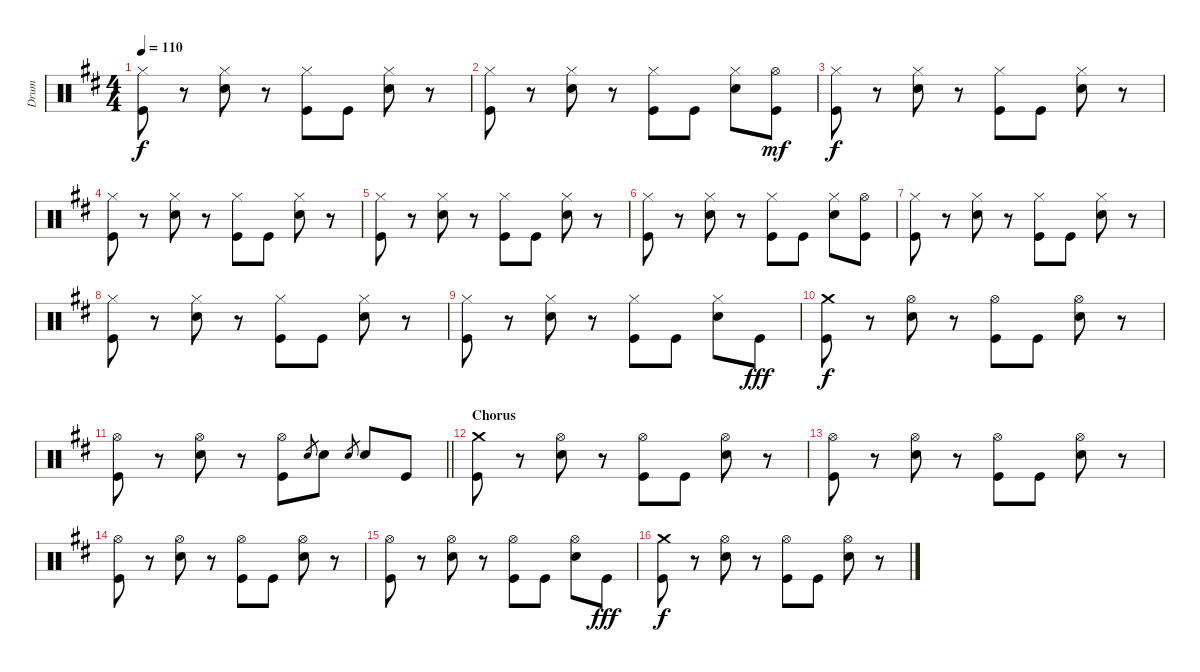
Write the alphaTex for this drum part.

\track ("Drum" "Drum") {instrument percussion}
\staff {score}
\articulation defaults
\ts (4 4)
\tempo 110
\clef neutral
\ks d
("Hi-Hat (closed)" "Kick (hit)").8{dy f} r.8 ("Hi-Hat (closed)" "Electric Snare (hit)").8 r.8 ("Hi-Hat (closed)" "Kick (hit)").8 "Kick (hit)".8 ("Hi-Hat (closed)" "Electric Snare (hit)").8 r.8 |
("Hi-Hat (closed)" "Kick (hit)").8 r.8 ("Hi-Hat (closed)" "Electric Snare (hit)").8 r.8 ("Hi-Hat (closed)" "Kick (hit)").8 "Kick (hit)".8 ("Hi-Hat (closed)" "Electric Snare (hit)").8 ("Hi-Hat (open)" "Kick (hit)").8{dy mf} |
("Hi-Hat (closed)" "Kick (hit)").8{dy f} r.8 ("Hi-Hat (closed)" "Electric Snare (hit)").8 r.8 ("Hi-Hat (closed)" "Kick (hit)").8 "Kick (hit)".8 ("Hi-Hat (closed)" "Electric Snare (hit)").8 r.8 |
("Hi-Hat (closed)" "Kick (hit)").8 r.8 ("Hi-Hat (closed)" "Electric Snare (hit)").8 r.8 ("Hi-Hat (closed)" "Kick (hit)").8 "Kick (hit)".8 ("Hi-Hat (closed)" "Electric Snare (hit)").8 r.8 |
("Hi-Hat (closed)" "Kick (hit)").8 r.8 ("Hi-Hat (closed)" "Electric Snare (hit)").8 r.8 ("Hi-Hat (closed)" "Kick (hit)").8 "Kick (hit)".8 ("Hi-Hat (closed)" "Electric Snare (hit)").8 r.8 |
("Hi-Hat (closed)" "Kick (hit)").8 r.8 ("Hi-Hat (closed)" "Electric Snare (hit)").8 r.8 ("Hi-Hat (closed)" "Kick (hit)").8 "Kick (hit)".8 ("Hi-Hat (closed)" "Electric Snare (hit)").8 ("Hi-Hat (open)" "Kick (hit)").8 |
("Hi-Hat (closed)" "Kick (hit)").8 r.8 ("Hi-Hat (closed)" "Electric Snare (hit)").8 r.8 ("Hi-Hat (closed)" "Kick (hit)").8 "Kick (hit)".8 ("Hi-Hat (closed)" "Electric Snare (hit)").8 r.8 |
("Hi-Hat (closed)" "Kick (hit)").8 r.8 ("Hi-Hat (closed)" "Electric Snare (hit)").8 r.8 ("Hi-Hat (closed)" "Kick (hit)").8 "Kick (hit)".8 ("Hi-Hat (closed)" "Electric Snare (hit)").8 r.8 |
("Hi-Hat (closed)" "Kick (hit)").8 r.8 ("Hi-Hat (closed)" "Electric Snare (hit)").8 r.8 ("Hi-Hat (closed)" "Kick (hit)").8 "Kick (hit)".8 ("Hi-Hat (closed)" "Electric Snare (hit)").8 "Kick (hit)".8{dy fff} |
("Crash medium (hit)" "Kick (hit)").8{dy f} r.8 ("Hi-Hat (open)" "Electric Snare (hit)").8 r.8 ("Hi-Hat (open)" "Kick (hit)").8 "Kick (hit)".8 ("Hi-Hat (open)" "Electric Snare (hit)").8 r.8 |
\barLineRight lightlight
("Hi-Hat (open)" "Kick (hit)").8 r.8 ("Hi-Hat (open)" "Electric Snare (hit)").8 r.8 ("Hi-Hat (open)" "Kick (hit)").8 "Electric Snare (hit)".8{gr} "Electric Snare (hit)".8 "Electric Snare (hit)".8{gr} "Electric Snare (hit)".8 "Kick (hit)".8 |
\section ("" "Chorus")
("Crash medium (hit)" "Kick (hit)").8 r.8 ("Hi-Hat (open)" "Electric Snare (hit)").8 r.8 ("Hi-Hat (open)" "Kick (hit)").8 "Kick (hit)".8 ("Hi-Hat (open)" "Electric Snare (hit)").8 r.8 |
("Hi-Hat (open)" "Kick (hit)").8 r.8 ("Hi-Hat (open)" "Electric Snare (hit)").8 r.8 ("Hi-Hat (open)" "Kick (hit)").8 "Kick (hit)".8 ("Hi-Hat (open)" "Electric Snare (hit)").8 r.8 |
("Hi-Hat (open)" "Kick (hit)").8 r.8 ("Hi-Hat (open)" "Electric Snare (hit)").8 r.8 ("Hi-Hat (open)" "Kick (hit)").8 "Kick (hit)".8 ("Hi-Hat (open)" "Electric Snare (hit)").8 r.8 |
("Hi-Hat (open)" "Kick (hit)").8 r.8 ("Hi-Hat (open)" "Electric Snare (hit)").8 r.8 ("Hi-Hat (open)" "Kick (hit)").8 "Kick (hit)".8 ("Hi-Hat (open)" "Electric Snare (hit)").8 "Kick (hit)".8{dy fff} |
("Crash medium (hit)" "Kick (hit)").8{dy f} r.8 ("Hi-Hat (open)" "Electric Snare (hit)").8 r.8 ("Hi-Hat (open)" "Kick (hit)").8 "Kick (hit)".8 ("Hi-Hat (open)" "Electric Snare (hit)").8 r.8
